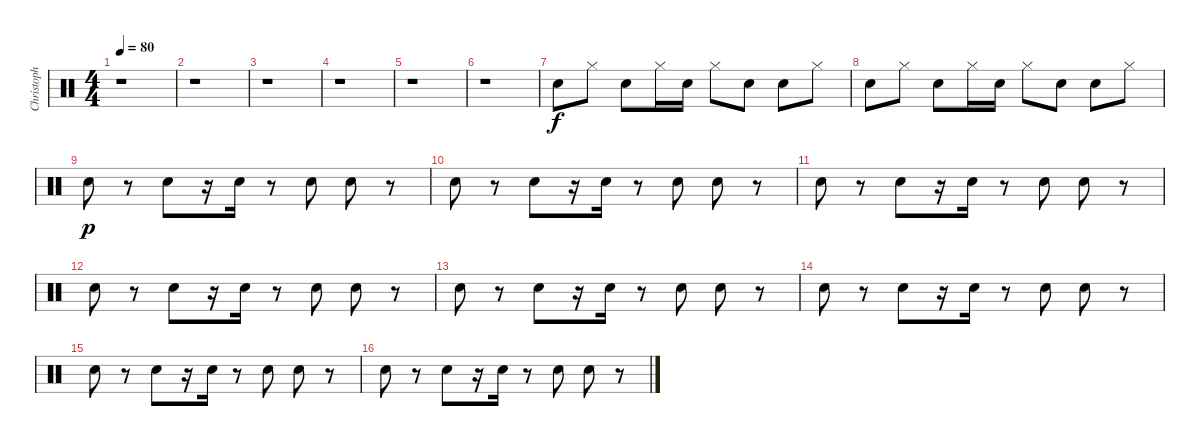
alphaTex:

\track ("Christoph DOOM Schneider" "Christoph ") {instrument percussion}
\staff {score}
\articulation defaults
\ts (4 4)
\tempo 80
\clef neutral
\ks c
r.1{dy p} |
r.1 |
r.1 |
r.1 |
r.1 |
r.1 |
"Electric Snare (hit)".8{dy f} "Hi-Hat (closed)".8 "Hand Clap (hit)".8 "Hi-Hat (closed)".16 "Electric Snare (hit)".16 "Hi-Hat (closed)".8 "Electric Snare (hit)".8 "Hand Clap (hit)".8 "Hi-Hat (closed)".8 |
"Electric Snare (hit)".8 "Hi-Hat (closed)".8 "Hand Clap (hit)".8 "Hi-Hat (closed)".16 "Electric Snare (hit)".16 "Hi-Hat (closed)".8 "Electric Snare (hit)".8 "Hand Clap (hit)".8 "Hi-Hat (closed)".8 |
"Electric Snare (hit)".8{dy p} r.8 "Hand Clap (hit)".8 r.16 "Electric Snare (hit)".16 r.8 "Electric Snare (hit)".8 "Hand Clap (hit)".8 r.8 |
"Electric Snare (hit)".8 r.8 "Hand Clap (hit)".8 r.16 "Electric Snare (hit)".16 r.8 "Electric Snare (hit)".8 "Hand Clap (hit)".8 r.8 |
"Electric Snare (hit)".8 r.8 "Hand Clap (hit)".8 r.16 "Electric Snare (hit)".16 r.8 "Electric Snare (hit)".8 "Hand Clap (hit)".8 r.8 |
"Electric Snare (hit)".8 r.8 "Hand Clap (hit)".8 r.16 "Electric Snare (hit)".16 r.8 "Electric Snare (hit)".8 "Hand Clap (hit)".8 r.8 |
"Electric Snare (hit)".8 r.8 "Hand Clap (hit)".8 r.16 "Electric Snare (hit)".16 r.8 "Electric Snare (hit)".8 "Hand Clap (hit)".8 r.8 |
"Electric Snare (hit)".8 r.8 "Hand Clap (hit)".8 r.16 "Electric Snare (hit)".16 r.8 "Electric Snare (hit)".8 "Hand Clap (hit)".8 r.8 |
"Electric Snare (hit)".8 r.8 "Hand Clap (hit)".8 r.16 "Electric Snare (hit)".16 r.8 "Electric Snare (hit)".8 "Hand Clap (hit)".8 r.8 |
"Electric Snare (hit)".8 r.8 "Hand Clap (hit)".8 r.16 "Electric Snare (hit)".16 r.8 "Electric Snare (hit)".8 "Hand Clap (hit)".8 r.8
